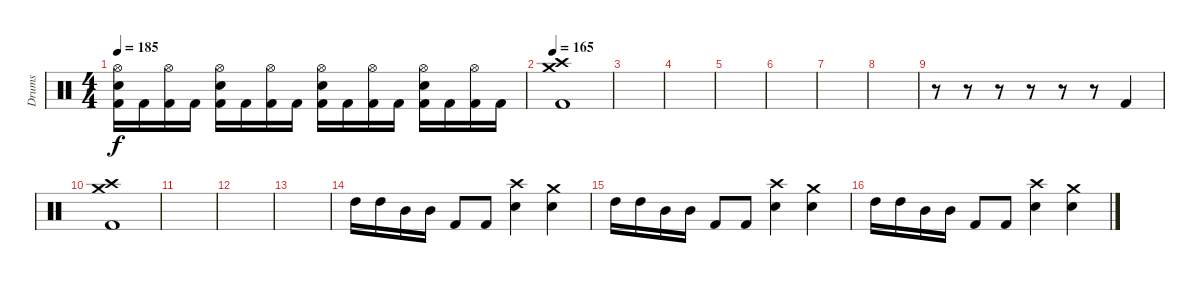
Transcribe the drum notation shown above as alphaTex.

\track ("Drums" "Drums") {instrument percussion}
\staff {score}
\articulation defaults
\ts (4 4)
\tempo 185
\clef neutral
\ks c
("Hi-Hat (open)" "Electric Snare (hit)" "Kick (hit) 2").16{dy f} "Kick (hit) 2".16 ("Hi-Hat (open)" "Kick (hit) 2").16 "Kick (hit) 2".16 ("Hi-Hat (open)" "Electric Snare (hit)" "Kick (hit) 2").16 "Kick (hit) 2".16 ("Hi-Hat (open)" "Kick (hit) 2").16 "Kick (hit) 2".16 ("Hi-Hat (open)" "Electric Snare (hit)" "Kick (hit) 2").16 "Kick (hit) 2".16 ("Hi-Hat (open)" "Kick (hit) 2").16 "Kick (hit) 2".16 ("Hi-Hat (open)" "Electric Snare (hit)" "Kick (hit) 2").16 "Kick (hit) 2".16 ("Hi-Hat (open)" "Kick (hit) 2").16 "Kick (hit) 2".16 |
\tempo 165
("Crash medium (hit)" "Crash high (hit)" "Kick (hit) 2").1 |
|
|
|
|
|
|
r.8 r.8 r.8 r.8 r.8 r.8 "Kick (hit) 2".4 |
("Crash medium (hit)" "Crash high (hit)" "Kick (hit) 2").1 |
|
|
|
"High Tom (hit)".16 "High Tom (hit)".16 "Mid Tom (hit)".16 "Mid Tom (hit)".16 "Kick (hit) 2".8 "Kick (hit) 2".8 ("Crash high (hit)" "Electric Snare (hit)").4 ("Crash medium (hit)" "Electric Snare (hit)").4 |
"High Tom (hit)".16 "High Tom (hit)".16 "Mid Tom (hit)".16 "Mid Tom (hit)".16 "Kick (hit) 2".8 "Kick (hit) 2".8 ("Crash high (hit)" "Electric Snare (hit)").4 ("Crash medium (hit)" "Electric Snare (hit)").4 |
"High Tom (hit)".16 "High Tom (hit)".16 "Mid Tom (hit)".16 "Mid Tom (hit)".16 "Kick (hit) 2".8 "Kick (hit) 2".8 ("Crash high (hit)" "Electric Snare (hit)").4 ("Crash medium (hit)" "Electric Snare (hit)").4
